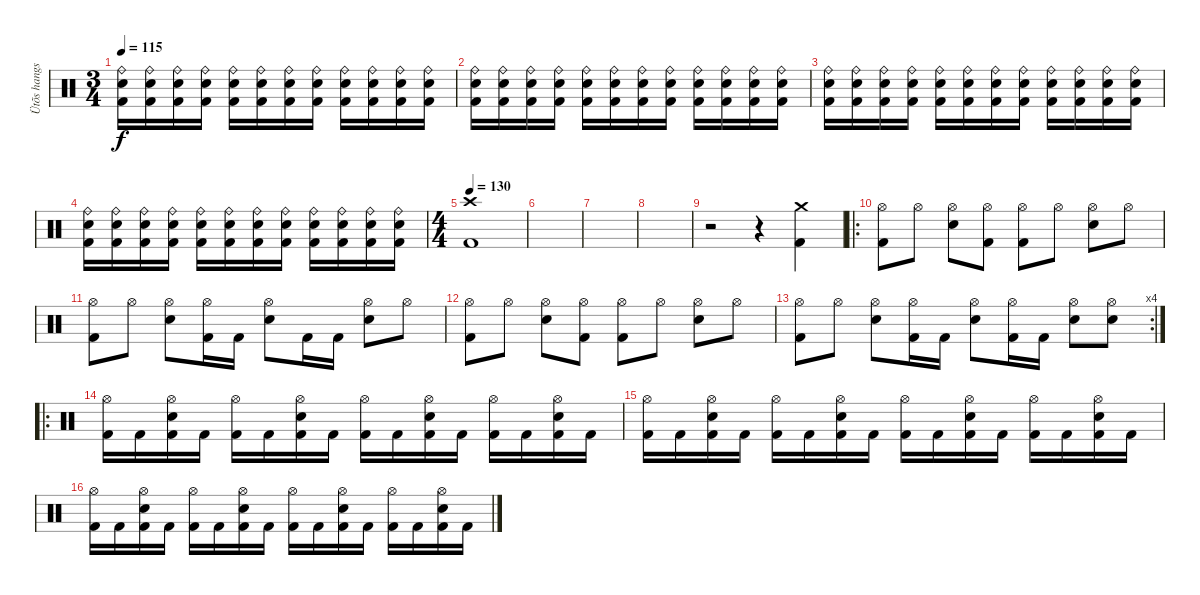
\track ("Ütõs hangszer" "Ütõs hangs") {instrument percussion}
\staff {score}
\articulation defaults
\ts (3 4)
\tempo 115
\clef neutral
\ks c
("Ride (bell)" "Electric Snare (hit)" "Kick (hit) 2").16{dy f} ("Ride (bell)" "Electric Snare (hit)" "Kick (hit) 2").16 ("Ride (bell)" "Electric Snare (hit)" "Kick (hit) 2").16 ("Ride (bell)" "Electric Snare (hit)" "Kick (hit) 2").16 ("Ride (bell)" "Electric Snare (hit)" "Kick (hit) 2").16 ("Ride (bell)" "Electric Snare (hit)" "Kick (hit) 2").16 ("Ride (bell)" "Electric Snare (hit)" "Kick (hit) 2").16 ("Ride (bell)" "Electric Snare (hit)" "Kick (hit) 2").16 ("Ride (bell)" "Electric Snare (hit)" "Kick (hit) 2").16 ("Ride (bell)" "Electric Snare (hit)" "Kick (hit) 2").16 ("Ride (bell)" "Electric Snare (hit)" "Kick (hit) 2").16 ("Ride (bell)" "Electric Snare (hit)" "Kick (hit) 2").16 |
("Ride (bell)" "Electric Snare (hit)" "Kick (hit) 2").16 ("Ride (bell)" "Electric Snare (hit)" "Kick (hit) 2").16 ("Ride (bell)" "Electric Snare (hit)" "Kick (hit) 2").16 ("Ride (bell)" "Electric Snare (hit)" "Kick (hit) 2").16 ("Ride (bell)" "Electric Snare (hit)" "Kick (hit) 2").16 ("Ride (bell)" "Electric Snare (hit)" "Kick (hit) 2").16 ("Ride (bell)" "Electric Snare (hit)" "Kick (hit) 2").16 ("Ride (bell)" "Electric Snare (hit)" "Kick (hit) 2").16 ("Ride (bell)" "Electric Snare (hit)" "Kick (hit) 2").16 ("Ride (bell)" "Electric Snare (hit)" "Kick (hit) 2").16 ("Ride (bell)" "Electric Snare (hit)" "Kick (hit) 2").16 ("Ride (bell)" "Electric Snare (hit)" "Kick (hit) 2").16 |
("Ride (bell)" "Electric Snare (hit)" "Kick (hit) 2").16 ("Ride (bell)" "Electric Snare (hit)" "Kick (hit) 2").16 ("Ride (bell)" "Electric Snare (hit)" "Kick (hit) 2").16 ("Ride (bell)" "Electric Snare (hit)" "Kick (hit) 2").16 ("Ride (bell)" "Electric Snare (hit)" "Kick (hit) 2").16 ("Ride (bell)" "Electric Snare (hit)" "Kick (hit) 2").16 ("Ride (bell)" "Electric Snare (hit)" "Kick (hit) 2").16 ("Ride (bell)" "Electric Snare (hit)" "Kick (hit) 2").16 ("Ride (bell)" "Electric Snare (hit)" "Kick (hit) 2").16 ("Ride (bell)" "Electric Snare (hit)" "Kick (hit) 2").16 ("Ride (bell)" "Electric Snare (hit)" "Kick (hit) 2").16 ("Ride (bell)" "Electric Snare (hit)" "Kick (hit) 2").16 |
("Ride (bell)" "Electric Snare (hit)" "Kick (hit) 2").16 ("Ride (bell)" "Electric Snare (hit)" "Kick (hit) 2").16 ("Ride (bell)" "Electric Snare (hit)" "Kick (hit) 2").16 ("Ride (bell)" "Electric Snare (hit)" "Kick (hit) 2").16 ("Ride (bell)" "Electric Snare (hit)" "Kick (hit) 2").16 ("Ride (bell)" "Electric Snare (hit)" "Kick (hit) 2").16 ("Ride (bell)" "Electric Snare (hit)" "Kick (hit) 2").16 ("Ride (bell)" "Electric Snare (hit)" "Kick (hit) 2").16 ("Ride (bell)" "Electric Snare (hit)" "Kick (hit) 2").16 ("Ride (bell)" "Electric Snare (hit)" "Kick (hit) 2").16 ("Ride (bell)" "Electric Snare (hit)" "Kick (hit) 2").16 ("Ride (bell)" "Electric Snare (hit)" "Kick (hit) 2").16 |
\ts (4 4)
\tempo 130
("Crash high (hit)" "Kick (hit) 2").1 |
|
|
|
r.2 r.4 ("Crash medium (hit)" "Kick (hit) 2").4 |
\ro
("Hi-Hat (open)" "Kick (hit) 2").8 "Hi-Hat (open)".8 ("Hi-Hat (open)" "Electric Snare (hit)").8 ("Hi-Hat (open)" "Kick (hit) 2").8 ("Hi-Hat (open)" "Kick (hit) 2").8 "Hi-Hat (open)".8 ("Hi-Hat (open)" "Electric Snare (hit)").8 "Hi-Hat (open)".8 |
("Hi-Hat (open)" "Kick (hit) 2").8 "Hi-Hat (open)".8 ("Hi-Hat (open)" "Electric Snare (hit)").8 ("Hi-Hat (open)" "Kick (hit) 2").16 "Kick (hit) 2".16 ("Hi-Hat (open)" "Electric Snare (hit)").8 "Kick (hit) 2".16 "Kick (hit) 2".16 ("Hi-Hat (open)" "Electric Snare (hit)").8 "Hi-Hat (open)".8 |
("Hi-Hat (open)" "Kick (hit) 2").8 "Hi-Hat (open)".8 ("Hi-Hat (open)" "Electric Snare (hit)").8 ("Hi-Hat (open)" "Kick (hit) 2").8 ("Hi-Hat (open)" "Kick (hit) 2").8 "Hi-Hat (open)".8 ("Hi-Hat (open)" "Electric Snare (hit)").8 "Hi-Hat (open)".8 |
\rc 4
("Hi-Hat (open)" "Kick (hit) 2").8 "Hi-Hat (open)".8 ("Hi-Hat (open)" "Electric Snare (hit)").8 ("Hi-Hat (open)" "Kick (hit) 2").16 "Kick (hit) 2".16 ("Hi-Hat (open)" "Electric Snare (hit)").8 ("Hi-Hat (open)" "Kick (hit) 2").16 "Kick (hit) 2".16 ("Hi-Hat (open)" "Electric Snare (hit)").8 ("Hi-Hat (open)" "Electric Snare (hit)").8 |
\ro
("Hi-Hat (open)" "Kick (hit) 2").16 "Kick (hit) 2".16 ("Hi-Hat (open)" "Electric Snare (hit)" "Kick (hit) 2").16 "Kick (hit) 2".16 ("Hi-Hat (open)" "Kick (hit) 2").16 "Kick (hit) 2".16 ("Hi-Hat (open)" "Electric Snare (hit)" "Kick (hit) 2").16 "Kick (hit) 2".16 ("Hi-Hat (open)" "Kick (hit) 2").16 "Kick (hit) 2".16 ("Hi-Hat (open)" "Electric Snare (hit)" "Kick (hit) 2").16 "Kick (hit) 2".16 ("Hi-Hat (open)" "Kick (hit) 2").16 "Kick (hit) 2".16 ("Hi-Hat (open)" "Electric Snare (hit)" "Kick (hit) 2").16 "Kick (hit) 2".16 |
("Hi-Hat (open)" "Kick (hit) 2").16 "Kick (hit) 2".16 ("Hi-Hat (open)" "Electric Snare (hit)" "Kick (hit) 2").16 "Kick (hit) 2".16 ("Hi-Hat (open)" "Kick (hit) 2").16 "Kick (hit) 2".16 ("Hi-Hat (open)" "Electric Snare (hit)" "Kick (hit) 2").16 "Kick (hit) 2".16 ("Hi-Hat (open)" "Kick (hit) 2").16 "Kick (hit) 2".16 ("Hi-Hat (open)" "Electric Snare (hit)" "Kick (hit) 2").16 "Kick (hit) 2".16 ("Hi-Hat (open)" "Kick (hit) 2").16 "Kick (hit) 2".16 ("Hi-Hat (open)" "Electric Snare (hit)" "Kick (hit) 2").16 "Kick (hit) 2".16 |
("Hi-Hat (open)" "Kick (hit) 2").16 "Kick (hit) 2".16 ("Hi-Hat (open)" "Electric Snare (hit)" "Kick (hit) 2").16 "Kick (hit) 2".16 ("Hi-Hat (open)" "Kick (hit) 2").16 "Kick (hit) 2".16 ("Hi-Hat (open)" "Electric Snare (hit)" "Kick (hit) 2").16 "Kick (hit) 2".16 ("Hi-Hat (open)" "Kick (hit) 2").16 "Kick (hit) 2".16 ("Hi-Hat (open)" "Electric Snare (hit)" "Kick (hit) 2").16 "Kick (hit) 2".16 ("Hi-Hat (open)" "Kick (hit) 2").16 "Kick (hit) 2".16 ("Hi-Hat (open)" "Electric Snare (hit)" "Kick (hit) 2").16 "Kick (hit) 2".16
